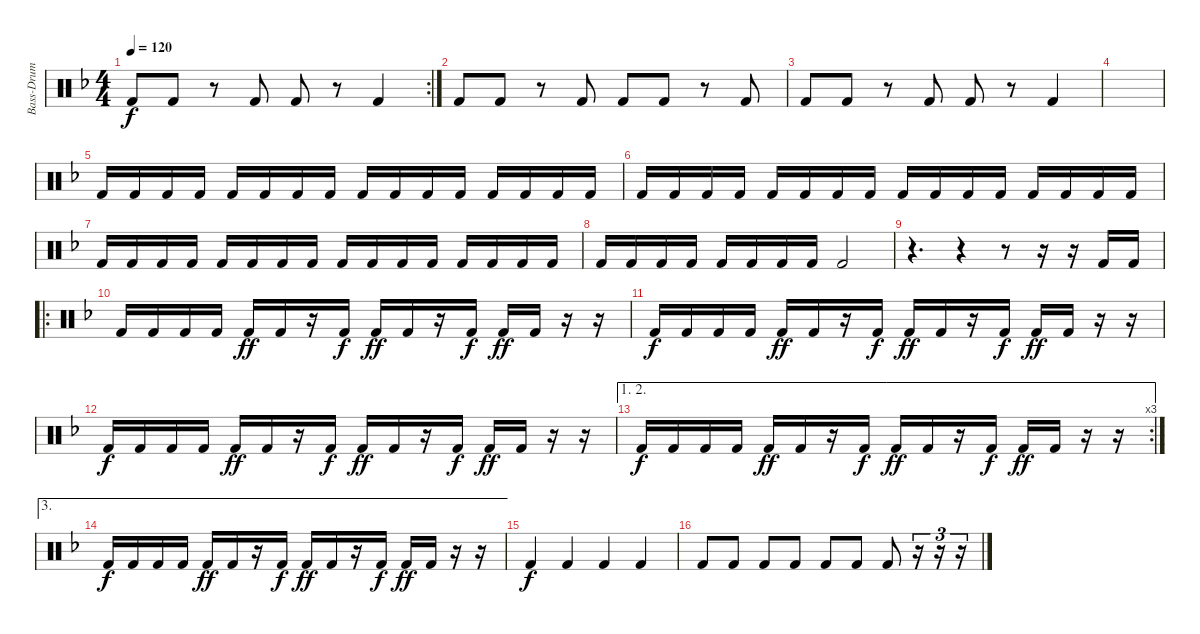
\track ("Bass-Drum" "Bass-Drum") {instrument percussion}
\staff {score}
\articulation defaults
\rc 2
\ts (4 4)
\tempo 120
\clef neutral
\ks f "Kick (hit) 2".8{dy f} "Kick (hit) 2".8
r.8 "Kick (hit) 2".8 "Kick (hit) 2".8 r.8 "Kick (hit) 2".4 |
"Kick (hit) 2".8 "Kick (hit) 2".8 r.8 "Kick (hit) 2".8 "Kick (hit) 2".8 "Kick (hit) 2".8 r.8 "Kick (hit) 2".8 |
"Kick (hit) 2".8 "Kick (hit) 2".8 r.8 "Kick (hit) 2".8 "Kick (hit) 2".8 r.8 "Kick (hit) 2".4 |
|
"Kick (hit) 2".16 "Kick (hit) 2".16 "Kick (hit) 2".16 "Kick (hit) 2".16 "Kick (hit) 2".16 "Kick (hit) 2".16 "Kick (hit) 2".16 "Kick (hit) 2".16 "Kick (hit) 2".16 "Kick (hit) 2".16 "Kick (hit) 2".16 "Kick (hit) 2".16 "Kick (hit) 2".16 "Kick (hit) 2".16 "Kick (hit) 2".16 "Kick (hit) 2".16 |
"Kick (hit) 2".16 "Kick (hit) 2".16 "Kick (hit) 2".16 "Kick (hit) 2".16 "Kick (hit) 2".16 "Kick (hit) 2".16 "Kick (hit) 2".16 "Kick (hit) 2".16 "Kick (hit) 2".16 "Kick (hit) 2".16 "Kick (hit) 2".16 "Kick (hit) 2".16 "Kick (hit) 2".16 "Kick (hit) 2".16 "Kick (hit) 2".16 "Kick (hit) 2".16 |
"Kick (hit) 2".16 "Kick (hit) 2".16 "Kick (hit) 2".16 "Kick (hit) 2".16 "Kick (hit) 2".16 "Kick (hit) 2".16 "Kick (hit) 2".16 "Kick (hit) 2".16 "Kick (hit) 2".16 "Kick (hit) 2".16 "Kick (hit) 2".16 "Kick (hit) 2".16 "Kick (hit) 2".16 "Kick (hit) 2".16 "Kick (hit) 2".16 "Kick (hit) 2".16 |
"Kick (hit) 2".16 "Kick (hit) 2".16 "Kick (hit) 2".16 "Kick (hit) 2".16 "Kick (hit) 2".16 "Kick (hit) 2".16 "Kick (hit) 2".16 "Kick (hit) 2".16 "Kick (hit) 2".2 |
r.4{d} r.4 r.8 r.16 r.16 "Kick (hit) 2".16 "Kick (hit) 2".16 |
\ro "Kick (hit) 2".16 "Kick (hit) 2".16 "Kick (hit) 2".16 "Kick (hit) 2".16 "Kick (hit) 2".16{dy ff} "Kick (hit) 2".16
r.16 "Kick (hit) 2".16{dy f} "Kick (hit) 2".16{dy ff} "Kick (hit) 2".16 r.16 "Kick (hit) 2".16{dy f} "Kick (hit) 2".16{dy ff} "Kick (hit) 2".16 r.16 r.16 |
"Kick (hit) 2".16{dy f} "Kick (hit) 2".16 "Kick (hit) 2".16 "Kick (hit) 2".16 "Kick (hit) 2".16{dy ff} "Kick (hit) 2".16 r.16 "Kick (hit) 2".16{dy f} "Kick (hit) 2".16{dy ff} "Kick (hit) 2".16 r.16 "Kick (hit) 2".16{dy f} "Kick (hit) 2".16{dy ff} "Kick (hit) 2".16 r.16 r.16 |
"Kick (hit) 2".16{dy f} "Kick (hit) 2".16 "Kick (hit) 2".16 "Kick (hit) 2".16 "Kick (hit) 2".16{dy ff} "Kick (hit) 2".16 r.16 "Kick (hit) 2".16{dy f} "Kick (hit) 2".16{dy ff} "Kick (hit) 2".16 r.16 "Kick (hit) 2".16{dy f} "Kick (hit) 2".16{dy ff} "Kick (hit) 2".16 r.16 r.16 |
\ae (1 2)
\rc 3 "Kick (hit) 2".16{dy f} "Kick (hit) 2".16 "Kick (hit) 2".16 "Kick (hit) 2".16 "Kick (hit) 2".16{dy ff} "Kick (hit) 2".16
r.16 "Kick (hit) 2".16{dy f} "Kick (hit) 2".16{dy ff} "Kick (hit) 2".16 r.16 "Kick (hit) 2".16{dy f} "Kick (hit) 2".16{dy ff} "Kick (hit) 2".16 r.16 r.16 |
\ae 3 "Kick (hit) 2".16{dy f} "Kick (hit) 2".16 "Kick (hit) 2".16 "Kick (hit) 2".16 "Kick (hit) 2".16{dy ff} "Kick (hit) 2".16
r.16 "Kick (hit) 2".16{dy f} "Kick (hit) 2".16{dy ff} "Kick (hit) 2".16 r.16 "Kick (hit) 2".16{dy f} "Kick (hit) 2".16{dy ff} "Kick (hit) 2".16 r.16 r.16 |
"Kick (hit) 2".4{dy f} "Kick (hit) 2".4 "Kick (hit) 2".4 "Kick (hit) 2".4 |
"Kick (hit) 2".8 "Kick (hit) 2".8 "Kick (hit) 2".8 "Kick (hit) 2".8 "Kick (hit) 2".8 "Kick (hit) 2".8 "Kick (hit) 2".8 r.16{tu (3 2)} r.16{tu (3 2)} r.16{tu (3 2)}
